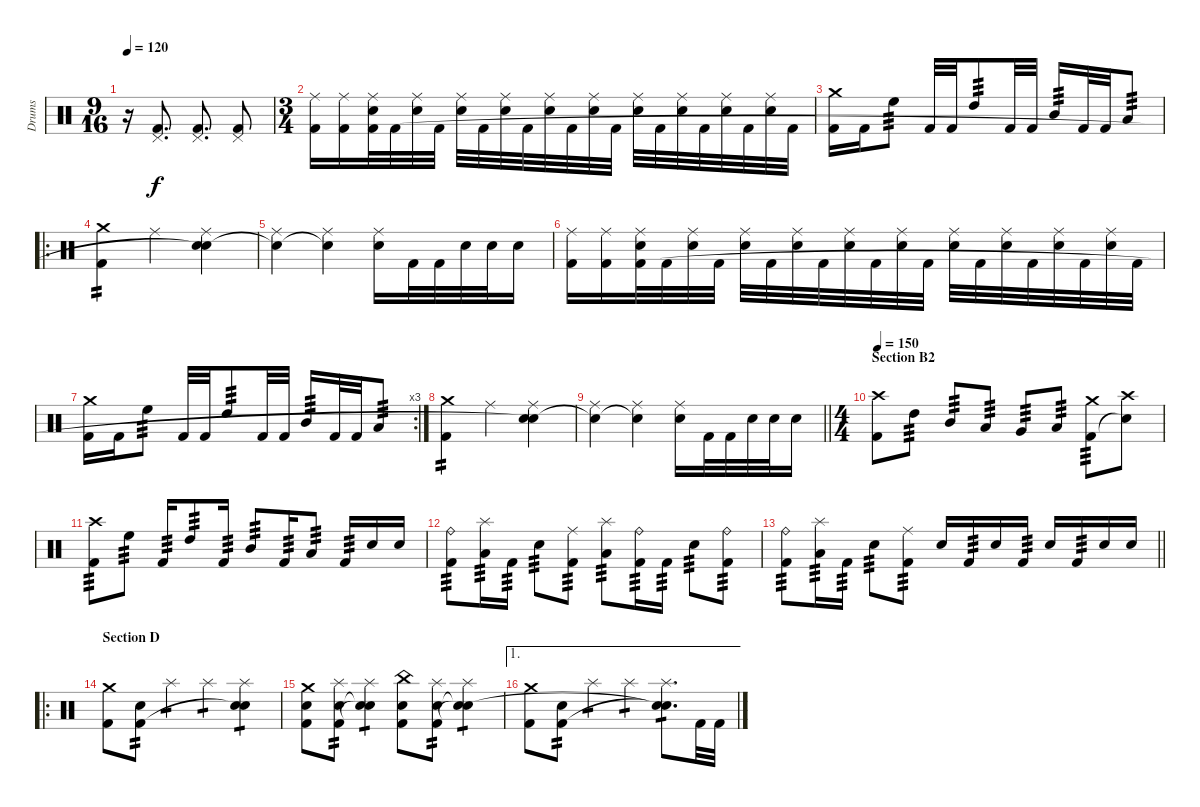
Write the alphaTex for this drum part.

\track ("Drums" "Drums") {instrument percussion}
\staff {score}
\articulation defaults
\ts (9 16)
\tempo 120
\clef neutral
\ks c
r.16{dy f} ("Pedal Hi-Hat (hit)" "Kick (hit) 2").8{d} ("Pedal Hi-Hat (hit)" "Kick (hit) 2").8{d} ("Pedal Hi-Hat (hit)" "Kick (hit) 2").8 |
\ts (3 4)
("Ride (middle)" "Kick (hit) 2").16 ("Ride (middle)" "Kick (hit) 2").16 ("Ride (middle)" "Snare (hit) 2" "Kick (hit) 2").32 "Kick (hit) 2".32 ("Ride (middle)" "Snare (hit) 2").32 "Kick (hit) 2".32 ("Ride (middle)" "Snare (hit) 2").32 "Kick (hit) 2".32 ("Ride (middle)" "Snare (hit) 2").32 "Kick (hit) 2".32 ("Ride (middle)" "Snare (hit) 2").32 "Kick (hit) 2".32 ("Ride (middle)" "Snare (hit) 2").32 "Kick (hit) 2".32 ("Ride (middle)" "Snare (hit) 2").32 "Kick (hit) 2".32 ("Ride (middle)" "Snare (hit) 2").32 "Kick (hit) 2".32 ("Ride (middle)" "Snare (hit) 2").32 "Kick (hit) 2".32 ("Ride (middle)" "Snare (hit) 2").32 "Kick (hit) 2".32 |
("Crash medium (hit)" "Kick (hit) 2").16 "Kick (hit) 2".16 "High Floor Tom (hit)".8{tp 3} "Kick (hit) 2".32 "Kick (hit) 2".32 "High Tom (hit)".8{tp 3} "Kick (hit) 2".32 "Kick (hit) 2".32 "Mid Tom (hit)".16{tp 3} "Kick (hit) 2".32 "Kick (hit) 2".32 "Low Tom (hit)".8{tp 3} |
\ro
("Crash medium (hit)" "Kick (hit) 2").4{tp 2} "Ride (middle)".4 ("Ride (middle)" "Snare (hit) 2" "Snare (hit)"{t}).4 |
("Ride (middle)" "Snare (hit)"{t}).4 ("Ride (middle)" "Snare (hit)"{t}).4 ("Ride (middle)" "Snare (hit) 2").16 "Kick (hit) 2".32 "Kick (hit) 2".32 "Snare (hit) 2".32 "Snare (hit) 2".32 "Snare (hit) 2".16 |
("Ride (middle)" "Kick (hit) 2").16 ("Ride (middle)" "Kick (hit) 2").16 ("Ride (middle)" "Snare (hit) 2" "Kick (hit) 2").32 "Kick (hit) 2".32 ("Ride (middle)" "Snare (hit) 2").32 "Kick (hit) 2".32 ("Ride (middle)" "Snare (hit) 2").32 "Kick (hit) 2".32 ("Ride (middle)" "Snare (hit) 2").32 "Kick (hit) 2".32 ("Ride (middle)" "Snare (hit) 2").32 "Kick (hit) 2".32 ("Ride (middle)" "Snare (hit) 2").32 "Kick (hit) 2".32 ("Ride (middle)" "Snare (hit) 2").32 "Kick (hit) 2".32 ("Ride (middle)" "Snare (hit) 2").32 "Kick (hit) 2".32 ("Ride (middle)" "Snare (hit) 2").32 "Kick (hit) 2".32 ("Ride (middle)" "Snare (hit) 2").32 "Kick (hit) 2".32 |
\rc 3
("Crash medium (hit)" "Kick (hit) 2").16 "Kick (hit) 2".16 "High Floor Tom (hit)".8{tp 3} "Kick (hit) 2".32 "Kick (hit) 2".32 "High Tom (hit)".8{tp 3} "Kick (hit) 2".32 "Kick (hit) 2".32 "Mid Tom (hit)".16{tp 3} "Kick (hit) 2".32 "Kick (hit) 2".32 "Low Tom (hit)".8{tp 3} |
("Crash medium (hit)" "Kick (hit) 2").4{tp 2} "Ride (middle)".4 ("Ride (middle)" "Snare (hit) 2" "Snare (hit)"{t}).4 |
\barLineRight lightlight
("Ride (middle)" "Snare (hit)"{t}).4 ("Ride (middle)" "Snare (hit)"{t}).4 ("Ride (middle)" "Snare (hit) 2").16 "Kick (hit) 2".32 "Kick (hit) 2".32 "Snare (hit) 2".32 "Snare (hit) 2".32 "Snare (hit) 2".16 |
\ts (4 4)
\section ("" "Section B2")
\tempo 150
("Crash high (hit)" "Kick (hit) 2").8 "High Tom (hit)".8{tp 3} "Mid Tom (hit)".8{tp 3} "Low Tom (hit)".8{tp 3} "Very Low Tom (hit)".8{tp 3} "Low Floor Tom (hit)".8{tp 3} ("Crash medium (hit)" "Kick (hit) 2").8{tp 3} ("Crash high (hit)" "Snare (hit)"{t}).8 |
("Crash high (hit)" "Kick (hit) 2").8{tp 3} "High Floor Tom (hit)".8{tp 3} "Kick (hit) 2".16{tp 3} "High Tom (hit)".8{tp 3} "Kick (hit) 2".16{tp 3} "Mid Tom (hit)".8{tp 3} "Kick (hit) 2".16{tp 3} "Low Tom (hit)".8{tp 3} "Kick (hit) 2".16{tp 3} "Snare (hit) 2".16 "Snare (hit) 2".16 |
("Ride (bell)" "Kick (hit) 2").8{tp 3} ("Splash (hit)" "Low Tom (hit)").16{tp 3} "Kick (hit) 2".16{tp 3} "Snare (hit) 2".8{tp 3} ("Ride (middle)" "Kick (hit) 2").8{tp 3} ("Splash (hit)" "Low Tom (hit)").8{tp 3} ("Ride (bell)" "Kick (hit) 2").16{tp 3} "Kick (hit) 2".16{tp 3} "Snare (hit) 2".8{tp 3} ("Ride (bell)" "Kick (hit) 2").8{tp 3} |
\barLineRight lightlight
("Ride (bell)" "Kick (hit) 2").8{tp 3} ("Splash (hit)" "Low Tom (hit)").16{tp 3} "Kick (hit) 2".16{tp 3} "Snare (hit) 2".8{tp 3} ("Ride (middle)" "Kick (hit) 2").8{tp 3} "Snare (hit) 2".16 "Kick (hit) 2".16{tp 3} "Snare (hit) 2".16 "Kick (hit) 2".16{tp 3} "Snare (hit) 2".16 "Kick (hit) 2".16{tp 3} "Snare (hit) 2".16 "Snare (hit) 2".16 |
\ro
\section ("" "Section D")
("Crash medium (hit)" "Kick (hit) 2").8 ("Snare (hit) 2" "Kick (hit) 2").8{tp 2} "Splash (hit)".4{tp 1} "Splash (hit)".4{tp 1} ("Splash (hit)" "Snare (hit)"{t} "Snare (hit)").4{tp 1} |
("Crash medium (hit)" "Snare (hit) 2" "Kick (hit) 2").8 ("Splash (hit)" "Snare (hit) 2" "Kick (hit) 2").8{tp 2} ("Splash (hit)" "Snare (hit)"{t} "Snare (hit)"{t}).4{tp 1} ("China (hit)" "Snare (hit) 2" "Kick (hit) 2").8 ("Splash (hit)" "Snare (hit) 2" "Kick (hit) 2").8{tp 2} ("Splash (hit)" "Snare (hit)"{t} "Snare (hit)"{t}).4{tp 1} |
\ae 1
("Crash medium (hit)" "Kick (hit) 2").8 ("Snare (hit) 2" "Kick (hit) 2").8{tp 2} "Splash (hit)".4{tp 1} "Splash (hit)".4{tp 1} ("Splash (hit)" "Snare (hit)"{t} "Snare (hit)"{t}).8{d tp 1} "Kick (hit) 2".32 "Kick (hit) 2".32
